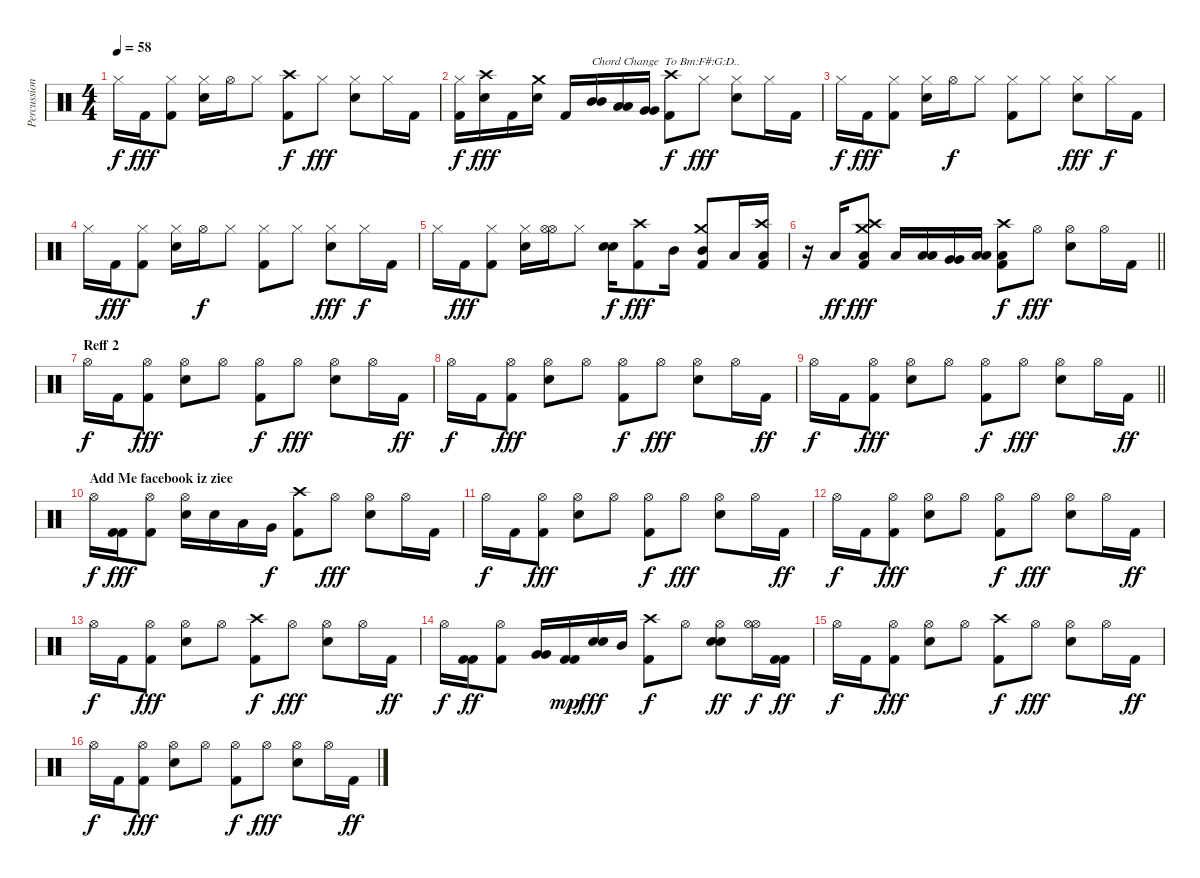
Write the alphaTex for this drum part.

\track ("Percussion" "Percussion") {instrument percussion}
\staff {score}
\articulation defaults
\ts (4 4)
\tempo 58
\clef neutral
\ks c "Hi-Hat (closed)".16{dy f} "Kick (hit) 2".16{dy fff}
("Kick (hit) 2" "Hi-Hat (closed)").8 ("Electric Snare (hit)" "Hi-Hat (closed)").16 "Hi-Hat (open)".16 "Hi-Hat (closed)".8 ("Kick (hit) 2" "Crash high (hit)").8{dy f} "Hi-Hat (closed)".8{dy fff} ("Electric Snare (hit)" "Hi-Hat (closed)").8 "Hi-Hat (closed)".16 "Kick (hit) 2".16 |
("Hi-Hat (closed)" "Kick (hit) 2").16{dy f} ("Electric Snare (hit)" "Crash high (hit)").16{dy fff} "Kick (hit) 2".16 ("Electric Snare (hit)" "Crash medium (hit)").16 "Kick (hit) 2".16 ("Mid Tom (hit)" "Mid Tom (hit)").16{txt "Chord Change  To Bm:F#:G:D.."} ("Low Tom (hit)" "Low Tom (hit)").16 ("Very Low Tom (hit)" "Very Low Tom (hit)").16 ("Kick (hit) 2" "Crash high (hit)").8{dy f} "Hi-Hat (closed)".8{dy fff} ("Hi-Hat (closed)" "Electric Snare (hit)").8 "Hi-Hat (closed)".16 "Kick (hit) 2".16 |
"Hi-Hat (closed)".16{dy f} "Kick (hit) 2".16{dy fff} ("Kick (hit) 2" "Hi-Hat (closed)").8 ("Electric Snare (hit)" "Hi-Hat (closed)").16 "Hi-Hat (open)".16{dy f} "Hi-Hat (closed)".8 ("Kick (hit) 2" "Hi-Hat (closed)").8 "Hi-Hat (closed)".8 ("Hi-Hat (closed)" "Electric Snare (hit)").8{dy fff} "Hi-Hat (closed)".16{dy f} "Kick (hit) 2".16 |
"Hi-Hat (closed)".16 "Kick (hit) 2".16{dy fff} ("Kick (hit) 2" "Hi-Hat (closed)").8 ("Electric Snare (hit)" "Hi-Hat (closed)").16 "Hi-Hat (open)".16{dy f} "Hi-Hat (closed)".8 ("Kick (hit) 2" "Hi-Hat (closed)").8 "Hi-Hat (closed)".8 ("Hi-Hat (closed)" "Electric Snare (hit)").8{dy fff} "Hi-Hat (closed)".16{dy f} "Kick (hit) 2".16 |
"Hi-Hat (closed)".16 "Kick (hit) 2".16{dy fff} ("Kick (hit) 2" "Hi-Hat (closed)").8 ("Hi-Hat (closed)" "Electric Snare (hit)").16 ("Hi-Hat (open)" "Hi-Hat (open)").16 "Hi-Hat (closed)".8 ("Electric Snare (hit)" "Electric Snare (hit)").16{dy f} ("Crash high (hit)" "Kick (hit) 2").8{dy fff} "Mid Tom (hit)".16 ("Mid Tom (hit)" "Kick (hit) 2" "Crash medium (hit)").8 "Low Tom (hit)".16 ("Low Tom (hit)" "Kick (hit) 2" "Crash high (hit)").16 |
\barLineRight lightlight
r.16 "Low Tom (hit)".16{dy ff} ("Low Tom (hit)" "Kick (hit) 2" "Crash medium (hit)" "Crash high (hit)").8{dy fff} "Low Tom (hit)".16 ("Low Tom (hit)" "Low Tom (hit)").16 ("Very Low Tom (hit)" "Very Low Tom (hit)").16 ("Low Floor Tom (hit)" "Low Floor Tom (hit)").16 ("Kick (hit) 2" "Low Floor Tom (hit)" "Crash high (hit)").8{dy f} "Hi-Hat (open)".8{dy fff} ("Hi-Hat (open)" "Electric Snare (hit)").8 "Hi-Hat (open)".16 "Kick (hit) 2".16 |
\section ("" "Reff 2")
"Hi-Hat (open)".16{dy f} "Kick (hit) 2".16 ("Hi-Hat (open)" "Kick (hit) 2").8{dy fff} ("Electric Snare (hit)" "Hi-Hat (open)").8 "Hi-Hat (open)".8 ("Kick (hit) 2" "Hi-Hat (open)").8{dy f} "Hi-Hat (open)".8{dy fff} ("Electric Snare (hit)" "Hi-Hat (open)").8 "Hi-Hat (open)".16 "Kick (hit) 2".16{dy ff} |
"Hi-Hat (open)".16{dy f} "Kick (hit) 2".16 ("Hi-Hat (open)" "Kick (hit) 2").8{dy fff} ("Electric Snare (hit)" "Hi-Hat (open)").8 "Hi-Hat (open)".8 ("Kick (hit) 2" "Hi-Hat (open)").8{dy f} "Hi-Hat (open)".8{dy fff} ("Electric Snare (hit)" "Hi-Hat (open)").8 "Hi-Hat (open)".16 "Kick (hit) 2".16{dy ff} |
\barLineRight lightlight "Hi-Hat (open)".16{dy f} "Kick (hit) 2".16
("Hi-Hat (open)" "Kick (hit) 2").8{dy fff} ("Electric Snare (hit)" "Hi-Hat (open)").8 "Hi-Hat (open)".8 ("Kick (hit) 2" "Hi-Hat (open)").8{dy f} "Hi-Hat (open)".8{dy fff} ("Electric Snare (hit)" "Hi-Hat (open)").8 "Hi-Hat (open)".16 "Kick (hit) 2".16{dy ff} |
\section ("" "Add Me facebook iz ziee")
"Hi-Hat (open)".16{dy f} ("Kick (hit) 2" "Kick (hit) 2").16{dy fff} ("Kick (hit) 2" "Hi-Hat (open)").8 ("Hi-Hat (open)" "Electric Snare (hit)").16 "Electric Snare (hit)".16 "Low Tom (hit)".16 "Very Low Tom (hit)".16{dy f} ("Kick (hit) 2" "Crash high (hit)").8 "Hi-Hat (open)".8{dy fff} ("Hi-Hat (open)" "Electric Snare (hit)").8 "Hi-Hat (open)".16 "Kick (hit) 2".16 |
"Hi-Hat (open)".16{dy f} "Kick (hit) 2".16 ("Hi-Hat (open)" "Kick (hit) 2").8{dy fff} ("Electric Snare (hit)" "Hi-Hat (open)").8 "Hi-Hat (open)".8 ("Kick (hit) 2" "Hi-Hat (open)").8{dy f} "Hi-Hat (open)".8{dy fff} ("Electric Snare (hit)" "Hi-Hat (open)").8 "Hi-Hat (open)".16 "Kick (hit) 2".16{dy ff} |
"Hi-Hat (open)".16{dy f} "Kick (hit) 2".16 ("Hi-Hat (open)" "Kick (hit) 2").8{dy fff} ("Electric Snare (hit)" "Hi-Hat (open)").8 "Hi-Hat (open)".8 ("Kick (hit) 2" "Hi-Hat (open)").8{dy f} "Hi-Hat (open)".8{dy fff} ("Electric Snare (hit)" "Hi-Hat (open)").8 "Hi-Hat (open)".16 "Kick (hit) 2".16{dy ff} |
"Hi-Hat (open)".16{dy f} "Kick (hit) 2".16 ("Hi-Hat (open)" "Kick (hit) 2").8{dy fff} ("Electric Snare (hit)" "Hi-Hat (open)").8 "Hi-Hat (open)".8 ("Kick (hit) 2" "Crash high (hit)").8{dy f} "Hi-Hat (open)".8{dy fff} ("Electric Snare (hit)" "Hi-Hat (open)").8 "Hi-Hat (open)".16 "Kick (hit) 2".16{dy ff} |
"Hi-Hat (open)".16{dy f} ("Kick (hit) 2" "Kick (hit) 2").16{dy ff} ("Kick (hit) 2" "Hi-Hat (open)").8 ("Very Low Tom (hit)" "Very Low Tom (hit)").16 ("Kick (hit) 2" "Kick (hit) 2").16{dy mp} ("Electric Snare (hit)" "Electric Snare (hit)").16{dy fff} "Mid Tom (hit)".16 ("Kick (hit) 2" "Crash high (hit)").8{dy f} "Hi-Hat (open)".8 ("Electric Snare (hit)" "Hi-Hat (open)" "Electric Snare (hit)").8{dy ff} ("Hi-Hat (open)" "Hi-Hat (open)").16{dy f} ("Kick (hit) 2" "Kick (hit) 2").16{dy ff} |
"Hi-Hat (open)".16{dy f} "Kick (hit) 2".16 ("Hi-Hat (open)" "Kick (hit) 2").8{dy fff} ("Electric Snare (hit)" "Hi-Hat (open)").8 "Hi-Hat (open)".8 ("Kick (hit) 2" "Crash high (hit)").8{dy f} "Hi-Hat (open)".8{dy fff} ("Electric Snare (hit)" "Hi-Hat (open)").8 "Hi-Hat (open)".16 "Kick (hit) 2".16{dy ff} |
"Hi-Hat (open)".16{dy f} "Kick (hit) 2".16 ("Hi-Hat (open)" "Kick (hit) 2").8{dy fff} ("Electric Snare (hit)" "Hi-Hat (open)").8 "Hi-Hat (open)".8 ("Kick (hit) 2" "Hi-Hat (open)").8{dy f} "Hi-Hat (open)".8{dy fff} ("Electric Snare (hit)" "Hi-Hat (open)").8 "Hi-Hat (open)".16 "Kick (hit) 2".16{dy ff}
